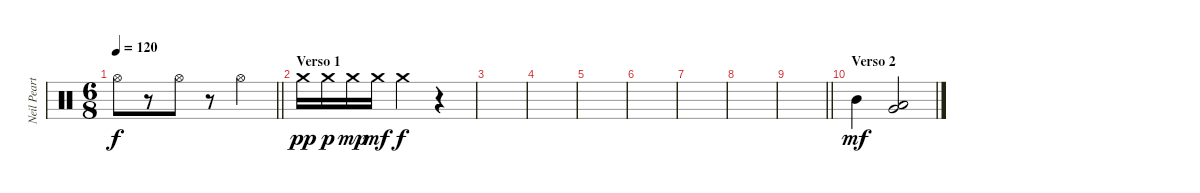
\track ("Neil Peart " "Neil Peart") {instrument percussion bank 49}
\staff {score}
\articulation defaults
\ts (6 8)
\tempo 120
\clef neutral
\barLineRight lightlight
\ks c "Hi-Hat (open)".8{dy f}
r.8 "Hi-Hat (open)".8 r.8 "Hi-Hat (open)".4 |
\section ("" "Verso 1")
"Crash medium (hit)".16{dy pp} "Crash medium (hit)".16{dy p} "Crash medium (hit)".16{dy mp} "Crash medium (hit)".16{dy mf} "Crash medium (hit)".4{dy f} r.4 |
|
|
|
|
|
|
\barLineRight lightlight
|
\section ("" "Verso 2")
"Mid Tom (hit)".4{dy mf} ("Very Low Tom (hit)" "Low Tom (hit)").2
